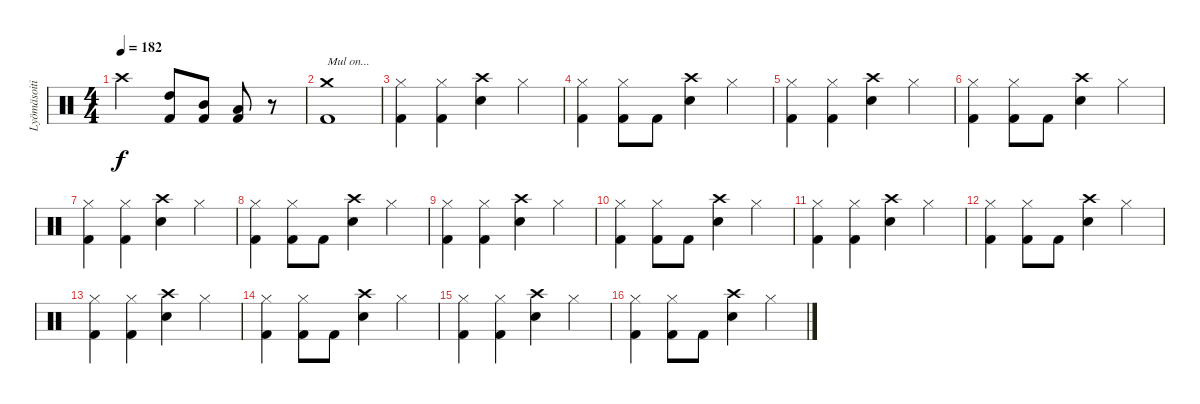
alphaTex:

\track ("Lyömäsoitin" "Lyömäsoiti") {instrument percussion}
\staff {score}
\articulation defaults
\ts (4 4)
\tempo 182
\clef neutral
\ks c "Crash high (hit)".2{dy f}
("High Tom (hit)" "Kick (hit) 2").8 ("Mid Tom (hit)" "Kick (hit) 2").8 ("Low Tom (hit)" "Kick (hit) 2").8 r.8 |
("Crash medium (hit)" "Kick (hit) 2").1{txt "Mul on..."} |
("Hi-Hat (closed)" "Kick (hit) 2").4 ("Hi-Hat (closed)" "Kick (hit) 2").4 ("Crash high (hit)" "Electric Snare (hit)").4 "Hi-Hat (closed)".4 |
("Hi-Hat (closed)" "Kick (hit) 2").4 ("Hi-Hat (closed)" "Kick (hit) 2").8 "Kick (hit) 2".8 ("Crash high (hit)" "Electric Snare (hit)").4 "Hi-Hat (closed)".4 |
("Hi-Hat (closed)" "Kick (hit) 2").4 ("Hi-Hat (closed)" "Kick (hit) 2").4 ("Crash high (hit)" "Electric Snare (hit)").4 "Hi-Hat (closed)".4 |
("Hi-Hat (closed)" "Kick (hit) 2").4 ("Hi-Hat (closed)" "Kick (hit) 2").8 "Kick (hit) 2".8 ("Crash high (hit)" "Electric Snare (hit)").4 "Hi-Hat (closed)".4 |
("Hi-Hat (closed)" "Kick (hit) 2").4 ("Hi-Hat (closed)" "Kick (hit) 2").4 ("Crash high (hit)" "Electric Snare (hit)").4 "Hi-Hat (closed)".4 |
("Hi-Hat (closed)" "Kick (hit) 2").4 ("Hi-Hat (closed)" "Kick (hit) 2").8 "Kick (hit) 2".8 ("Crash high (hit)" "Electric Snare (hit)").4 "Hi-Hat (closed)".4 |
("Hi-Hat (closed)" "Kick (hit) 2").4 ("Hi-Hat (closed)" "Kick (hit) 2").4 ("Crash high (hit)" "Electric Snare (hit)").4 "Hi-Hat (closed)".4 |
("Hi-Hat (closed)" "Kick (hit) 2").4 ("Hi-Hat (closed)" "Kick (hit) 2").8 "Kick (hit) 2".8 ("Crash high (hit)" "Electric Snare (hit)").4 "Hi-Hat (closed)".4 |
("Hi-Hat (closed)" "Kick (hit) 2").4 ("Hi-Hat (closed)" "Kick (hit) 2").4 ("Crash high (hit)" "Electric Snare (hit)").4 "Hi-Hat (closed)".4 |
("Hi-Hat (closed)" "Kick (hit) 2").4 ("Hi-Hat (closed)" "Kick (hit) 2").8 "Kick (hit) 2".8 ("Crash high (hit)" "Electric Snare (hit)").4 "Hi-Hat (closed)".4 |
("Hi-Hat (closed)" "Kick (hit) 2").4 ("Hi-Hat (closed)" "Kick (hit) 2").4 ("Crash high (hit)" "Electric Snare (hit)").4 "Hi-Hat (closed)".4 |
("Hi-Hat (closed)" "Kick (hit) 2").4 ("Hi-Hat (closed)" "Kick (hit) 2").8 "Kick (hit) 2".8 ("Crash high (hit)" "Electric Snare (hit)").4 "Hi-Hat (closed)".4 |
("Hi-Hat (closed)" "Kick (hit) 2").4 ("Hi-Hat (closed)" "Kick (hit) 2").4 ("Crash high (hit)" "Electric Snare (hit)").4 "Hi-Hat (closed)".4 |
("Hi-Hat (closed)" "Kick (hit) 2").4 ("Hi-Hat (closed)" "Kick (hit) 2").8 "Kick (hit) 2".8 ("Crash high (hit)" "Electric Snare (hit)").4 "Hi-Hat (closed)".4
